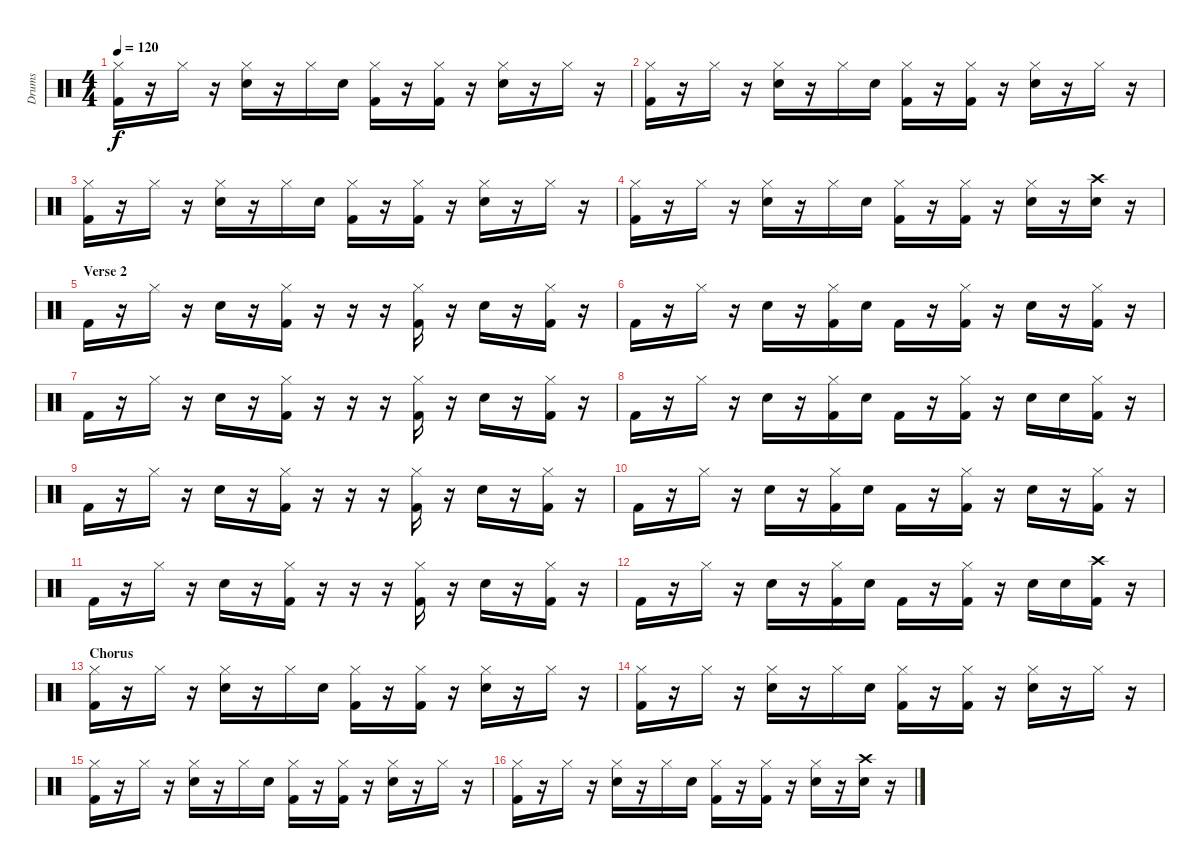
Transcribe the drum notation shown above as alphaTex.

\track ("Drums" "Drums") {instrument percussion}
\staff {score}
\articulation defaults
\ts (4 4)
\tempo 120
\clef neutral
\ks c
("Hi-Hat (closed)" "Kick (hit) 2").16{dy f} r.16 "Hi-Hat (closed)".16 r.16 ("Hi-Hat (closed)" "Electric Snare (hit)").16 r.16 "Hi-Hat (closed)".16 "Electric Snare (hit)".16 ("Hi-Hat (closed)" "Kick (hit) 2").16 r.16 ("Hi-Hat (closed)" "Kick (hit) 2").16 r.16 ("Hi-Hat (closed)" "Electric Snare (hit)").16 r.16 "Hi-Hat (closed)".16 r.16 |
("Hi-Hat (closed)" "Kick (hit) 2").16 r.16 "Hi-Hat (closed)".16 r.16 ("Hi-Hat (closed)" "Electric Snare (hit)").16 r.16 "Hi-Hat (closed)".16 "Electric Snare (hit)".16 ("Hi-Hat (closed)" "Kick (hit) 2").16 r.16 ("Hi-Hat (closed)" "Kick (hit) 2").16 r.16 ("Hi-Hat (closed)" "Electric Snare (hit)").16 r.16 "Hi-Hat (closed)".16 r.16 |
("Hi-Hat (closed)" "Kick (hit) 2").16 r.16 "Hi-Hat (closed)".16 r.16 ("Hi-Hat (closed)" "Electric Snare (hit)").16 r.16 "Hi-Hat (closed)".16 "Electric Snare (hit)".16 ("Hi-Hat (closed)" "Kick (hit) 2").16 r.16 ("Hi-Hat (closed)" "Kick (hit) 2").16 r.16 ("Hi-Hat (closed)" "Electric Snare (hit)").16 r.16 "Hi-Hat (closed)".16 r.16 |
("Hi-Hat (closed)" "Kick (hit) 2").16 r.16 "Hi-Hat (closed)".16 r.16 ("Hi-Hat (closed)" "Electric Snare (hit)").16 r.16 "Hi-Hat (closed)".16 "Electric Snare (hit)".16 ("Hi-Hat (closed)" "Kick (hit) 2").16 r.16 ("Hi-Hat (closed)" "Kick (hit) 2").16 r.16 ("Hi-Hat (closed)" "Electric Snare (hit)").16 r.16 ("Crash high (hit)" "Electric Snare (hit)").16 r.16 |
\section ("" "Verse 2")
"Kick (hit) 2".16 r.16 "Hi-Hat (closed)".16 r.16 "Electric Snare (hit)".16 r.16 ("Hi-Hat (closed)" "Kick (hit) 2").16 r.16 r.16 r.16 ("Hi-Hat (closed)" "Kick (hit) 2").16 r.16 "Electric Snare (hit)".16 r.16 ("Hi-Hat (closed)" "Kick (hit) 2").16 r.16 |
"Kick (hit) 2".16 r.16 "Hi-Hat (closed)".16 r.16 "Electric Snare (hit)".16 r.16 ("Hi-Hat (closed)" "Kick (hit) 2").16 "Electric Snare (hit)".16 "Kick (hit) 2".16 r.16 ("Hi-Hat (closed)" "Kick (hit) 2").16 r.16 "Electric Snare (hit)".16 r.16 ("Hi-Hat (closed)" "Kick (hit) 2").16 r.16 |
"Kick (hit) 2".16 r.16 "Hi-Hat (closed)".16 r.16 "Electric Snare (hit)".16 r.16 ("Hi-Hat (closed)" "Kick (hit) 2").16 r.16 r.16 r.16 ("Hi-Hat (closed)" "Kick (hit) 2").16 r.16 "Electric Snare (hit)".16 r.16 ("Hi-Hat (closed)" "Kick (hit) 2").16 r.16 |
"Kick (hit) 2".16 r.16 "Hi-Hat (closed)".16 r.16 "Electric Snare (hit)".16 r.16 ("Hi-Hat (closed)" "Kick (hit) 2").16 "Electric Snare (hit)".16 "Kick (hit) 2".16 r.16 ("Hi-Hat (closed)" "Kick (hit) 2").16 r.16 "Electric Snare (hit)".16 "Electric Snare (hit)".16 ("Hi-Hat (closed)" "Kick (hit) 2").16 r.16 |
"Kick (hit) 2".16 r.16 "Hi-Hat (closed)".16 r.16 "Electric Snare (hit)".16 r.16 ("Hi-Hat (closed)" "Kick (hit) 2").16 r.16 r.16 r.16 ("Hi-Hat (closed)" "Kick (hit) 2").16 r.16 "Electric Snare (hit)".16 r.16 ("Hi-Hat (closed)" "Kick (hit) 2").16 r.16 |
"Kick (hit) 2".16 r.16 "Hi-Hat (closed)".16 r.16 "Electric Snare (hit)".16 r.16 ("Hi-Hat (closed)" "Kick (hit) 2").16 "Electric Snare (hit)".16 "Kick (hit) 2".16 r.16 ("Hi-Hat (closed)" "Kick (hit) 2").16 r.16 "Electric Snare (hit)".16 r.16 ("Hi-Hat (closed)" "Kick (hit) 2").16 r.16 |
"Kick (hit) 2".16 r.16 "Hi-Hat (closed)".16 r.16 "Electric Snare (hit)".16 r.16 ("Hi-Hat (closed)" "Kick (hit) 2").16 r.16 r.16 r.16 ("Hi-Hat (closed)" "Kick (hit) 2").16 r.16 "Electric Snare (hit)".16 r.16 ("Hi-Hat (closed)" "Kick (hit) 2").16 r.16 |
"Kick (hit) 2".16 r.16 "Hi-Hat (closed)".16 r.16 "Electric Snare (hit)".16 r.16 ("Hi-Hat (closed)" "Kick (hit) 2").16 "Electric Snare (hit)".16 "Kick (hit) 2".16 r.16 ("Hi-Hat (closed)" "Kick (hit) 2").16 r.16 "Electric Snare (hit)".16 "Electric Snare (hit)".16 ("Crash high (hit)" "Kick (hit) 2").16 r.16 |
\section ("" "Chorus")
("Hi-Hat (closed)" "Kick (hit) 2").16 r.16 "Hi-Hat (closed)".16 r.16 ("Hi-Hat (closed)" "Electric Snare (hit)").16 r.16 "Hi-Hat (closed)".16 "Electric Snare (hit)".16 ("Hi-Hat (closed)" "Kick (hit) 2").16 r.16 ("Hi-Hat (closed)" "Kick (hit) 2").16 r.16 ("Hi-Hat (closed)" "Electric Snare (hit)").16 r.16 "Hi-Hat (closed)".16 r.16 |
("Hi-Hat (closed)" "Kick (hit) 2").16 r.16 "Hi-Hat (closed)".16 r.16 ("Hi-Hat (closed)" "Electric Snare (hit)").16 r.16 "Hi-Hat (closed)".16 "Electric Snare (hit)".16 ("Hi-Hat (closed)" "Kick (hit) 2").16 r.16 ("Hi-Hat (closed)" "Kick (hit) 2").16 r.16 ("Hi-Hat (closed)" "Electric Snare (hit)").16 r.16 "Hi-Hat (closed)".16 r.16 |
("Hi-Hat (closed)" "Kick (hit) 2").16 r.16 "Hi-Hat (closed)".16 r.16 ("Hi-Hat (closed)" "Electric Snare (hit)").16 r.16 "Hi-Hat (closed)".16 "Electric Snare (hit)".16 ("Hi-Hat (closed)" "Kick (hit) 2").16 r.16 ("Hi-Hat (closed)" "Kick (hit) 2").16 r.16 ("Hi-Hat (closed)" "Electric Snare (hit)").16 r.16 "Hi-Hat (closed)".16 r.16 |
("Hi-Hat (closed)" "Kick (hit) 2").16 r.16 "Hi-Hat (closed)".16 r.16 ("Hi-Hat (closed)" "Electric Snare (hit)").16 r.16 "Hi-Hat (closed)".16 "Electric Snare (hit)".16 ("Hi-Hat (closed)" "Kick (hit) 2").16 r.16 ("Hi-Hat (closed)" "Kick (hit) 2").16 r.16 ("Hi-Hat (closed)" "Electric Snare (hit)").16 r.16 ("Crash high (hit)" "Electric Snare (hit)").16 r.16
